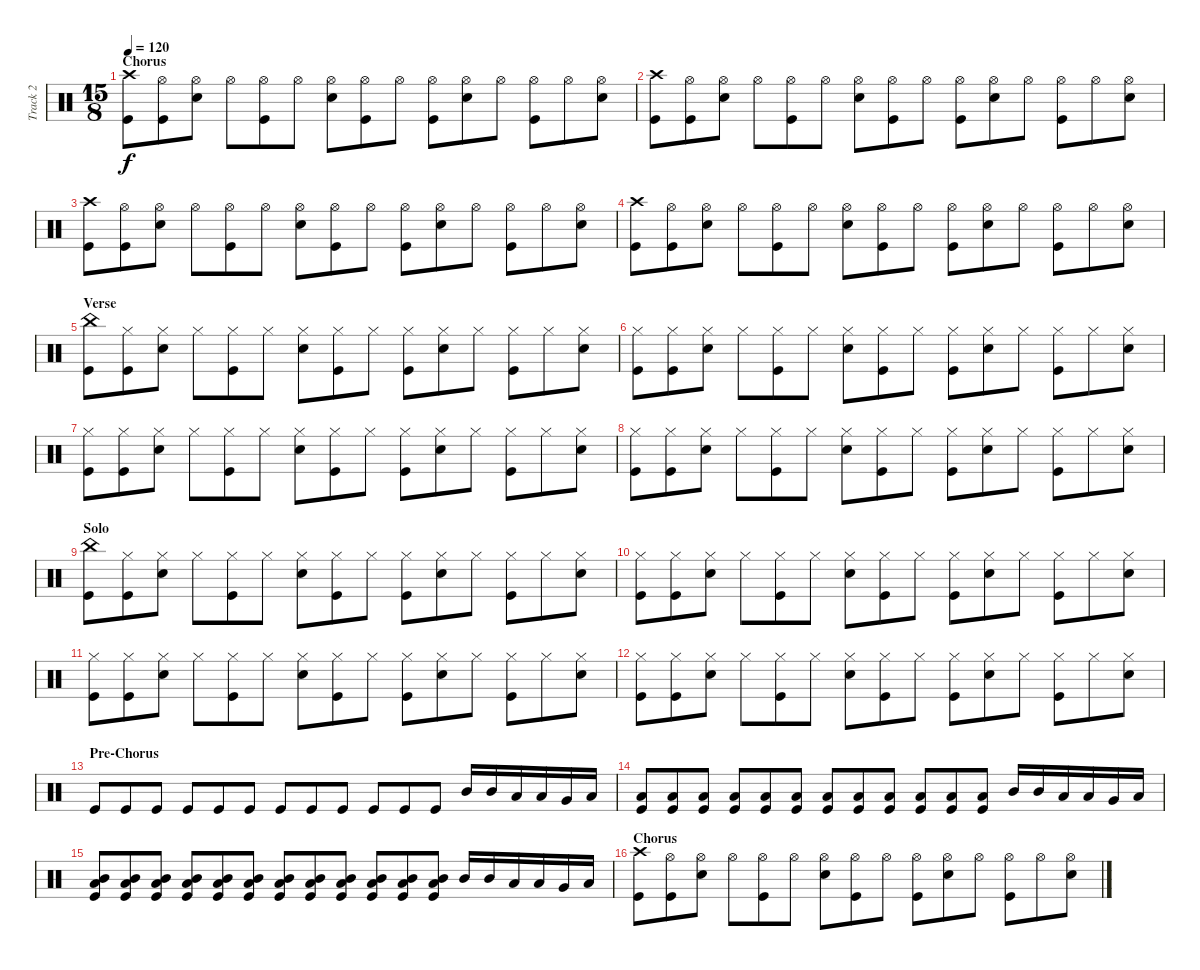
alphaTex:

\track ("Track 2" "Track 2") {instrument percussion}
\staff {score}
\articulation defaults
\ts (15 8)
\section ("" "Chorus")
\tempo 120
\clef neutral
\ks c
("Crash high (hit)" "Kick (hit)").8{dy f} ("Hi-Hat (open)" "Kick (hit)").8 ("Hi-Hat (open)" "Snare (hit) 2").8 "Hi-Hat (open)".8 ("Hi-Hat (open)" "Kick (hit)").8 "Hi-Hat (open)".8 ("Hi-Hat (open)" "Snare (hit) 2").8 ("Hi-Hat (open)" "Kick (hit)").8 "Hi-Hat (open)".8 ("Hi-Hat (open)" "Kick (hit)").8 ("Hi-Hat (open)" "Snare (hit) 2").8 "Hi-Hat (open)".8 ("Hi-Hat (open)" "Kick (hit)").8 "Hi-Hat (open)".8 ("Hi-Hat (open)" "Snare (hit) 2").8 |
("Crash high (hit)" "Kick (hit)").8 ("Hi-Hat (open)" "Kick (hit)").8 ("Hi-Hat (open)" "Snare (hit) 2").8 "Hi-Hat (open)".8 ("Hi-Hat (open)" "Kick (hit)").8 "Hi-Hat (open)".8 ("Hi-Hat (open)" "Snare (hit) 2").8 ("Hi-Hat (open)" "Kick (hit)").8 "Hi-Hat (open)".8 ("Hi-Hat (open)" "Kick (hit)").8 ("Hi-Hat (open)" "Snare (hit) 2").8 "Hi-Hat (open)".8 ("Hi-Hat (open)" "Kick (hit)").8 "Hi-Hat (open)".8 ("Hi-Hat (open)" "Snare (hit) 2").8 |
("Crash high (hit)" "Kick (hit)").8 ("Hi-Hat (open)" "Kick (hit)").8 ("Hi-Hat (open)" "Snare (hit) 2").8 "Hi-Hat (open)".8 ("Hi-Hat (open)" "Kick (hit)").8 "Hi-Hat (open)".8 ("Hi-Hat (open)" "Snare (hit) 2").8 ("Hi-Hat (open)" "Kick (hit)").8 "Hi-Hat (open)".8 ("Hi-Hat (open)" "Kick (hit)").8 ("Hi-Hat (open)" "Snare (hit) 2").8 "Hi-Hat (open)".8 ("Hi-Hat (open)" "Kick (hit)").8 "Hi-Hat (open)".8 ("Hi-Hat (open)" "Snare (hit) 2").8 |
("Crash high (hit)" "Kick (hit)").8 ("Hi-Hat (open)" "Kick (hit)").8 ("Hi-Hat (open)" "Snare (hit) 2").8 "Hi-Hat (open)".8 ("Hi-Hat (open)" "Kick (hit)").8 "Hi-Hat (open)".8 ("Hi-Hat (open)" "Snare (hit) 2").8 ("Hi-Hat (open)" "Kick (hit)").8 "Hi-Hat (open)".8 ("Hi-Hat (open)" "Kick (hit)").8 ("Hi-Hat (open)" "Snare (hit) 2").8 "Hi-Hat (open)".8 ("Hi-Hat (open)" "Kick (hit)").8 "Hi-Hat (open)".8 ("Hi-Hat (open)" "Snare (hit) 2").8 |
\section ("" "Verse")
("China (hit)" "Kick (hit)").8 ("Hi-Hat (closed)" "Kick (hit)").8 ("Hi-Hat (closed)" "Snare (hit) 2").8 "Hi-Hat (closed)".8 ("Hi-Hat (closed)" "Kick (hit)").8 "Hi-Hat (closed)".8 ("Hi-Hat (closed)" "Snare (hit) 2").8 ("Hi-Hat (closed)" "Kick (hit)").8 "Hi-Hat (closed)".8 ("Hi-Hat (closed)" "Kick (hit)").8 ("Hi-Hat (closed)" "Snare (hit) 2").8 "Hi-Hat (closed)".8 ("Hi-Hat (closed)" "Kick (hit)").8 "Hi-Hat (closed)".8 ("Hi-Hat (closed)" "Snare (hit) 2").8 |
("Hi-Hat (closed)" "Kick (hit)").8 ("Hi-Hat (closed)" "Kick (hit)").8 ("Hi-Hat (closed)" "Snare (hit) 2").8 "Hi-Hat (closed)".8 ("Hi-Hat (closed)" "Kick (hit)").8 "Hi-Hat (closed)".8 ("Hi-Hat (closed)" "Snare (hit) 2").8 ("Hi-Hat (closed)" "Kick (hit)").8 "Hi-Hat (closed)".8 ("Hi-Hat (closed)" "Kick (hit)").8 ("Hi-Hat (closed)" "Snare (hit) 2").8 "Hi-Hat (closed)".8 ("Hi-Hat (closed)" "Kick (hit)").8 "Hi-Hat (closed)".8 ("Hi-Hat (closed)" "Snare (hit) 2").8 |
("Hi-Hat (closed)" "Kick (hit)").8 ("Hi-Hat (closed)" "Kick (hit)").8 ("Hi-Hat (closed)" "Snare (hit) 2").8 "Hi-Hat (closed)".8 ("Hi-Hat (closed)" "Kick (hit)").8 "Hi-Hat (closed)".8 ("Hi-Hat (closed)" "Snare (hit) 2").8 ("Hi-Hat (closed)" "Kick (hit)").8 "Hi-Hat (closed)".8 ("Hi-Hat (closed)" "Kick (hit)").8 ("Hi-Hat (closed)" "Snare (hit) 2").8 "Hi-Hat (closed)".8 ("Hi-Hat (closed)" "Kick (hit)").8 "Hi-Hat (closed)".8 ("Hi-Hat (closed)" "Snare (hit) 2").8 |
("Hi-Hat (closed)" "Kick (hit)").8 ("Hi-Hat (closed)" "Kick (hit)").8 ("Hi-Hat (closed)" "Snare (hit) 2").8 "Hi-Hat (closed)".8 ("Hi-Hat (closed)" "Kick (hit)").8 "Hi-Hat (closed)".8 ("Hi-Hat (closed)" "Snare (hit) 2").8 ("Hi-Hat (closed)" "Kick (hit)").8 "Hi-Hat (closed)".8 ("Hi-Hat (closed)" "Kick (hit)").8 ("Hi-Hat (closed)" "Snare (hit) 2").8 "Hi-Hat (closed)".8 ("Hi-Hat (closed)" "Kick (hit)").8 "Hi-Hat (closed)".8 ("Hi-Hat (closed)" "Snare (hit) 2").8 |
\section ("" "Solo")
("China (hit)" "Kick (hit)").8 ("Hi-Hat (closed)" "Kick (hit)").8 ("Hi-Hat (closed)" "Snare (hit) 2").8 "Hi-Hat (closed)".8 ("Hi-Hat (closed)" "Kick (hit)").8 "Hi-Hat (closed)".8 ("Hi-Hat (closed)" "Snare (hit) 2").8 ("Hi-Hat (closed)" "Kick (hit)").8 "Hi-Hat (closed)".8 ("Hi-Hat (closed)" "Kick (hit)").8 ("Hi-Hat (closed)" "Snare (hit) 2").8 "Hi-Hat (closed)".8 ("Hi-Hat (closed)" "Kick (hit)").8 "Hi-Hat (closed)".8 ("Hi-Hat (closed)" "Snare (hit) 2").8 |
("Hi-Hat (closed)" "Kick (hit)").8 ("Hi-Hat (closed)" "Kick (hit)").8 ("Hi-Hat (closed)" "Snare (hit) 2").8 "Hi-Hat (closed)".8 ("Hi-Hat (closed)" "Kick (hit)").8 "Hi-Hat (closed)".8 ("Hi-Hat (closed)" "Snare (hit) 2").8 ("Hi-Hat (closed)" "Kick (hit)").8 "Hi-Hat (closed)".8 ("Hi-Hat (closed)" "Kick (hit)").8 ("Hi-Hat (closed)" "Snare (hit) 2").8 "Hi-Hat (closed)".8 ("Hi-Hat (closed)" "Kick (hit)").8 "Hi-Hat (closed)".8 ("Hi-Hat (closed)" "Snare (hit) 2").8 |
("Hi-Hat (closed)" "Kick (hit)").8 ("Hi-Hat (closed)" "Kick (hit)").8 ("Hi-Hat (closed)" "Snare (hit) 2").8 "Hi-Hat (closed)".8 ("Hi-Hat (closed)" "Kick (hit)").8 "Hi-Hat (closed)".8 ("Hi-Hat (closed)" "Snare (hit) 2").8 ("Hi-Hat (closed)" "Kick (hit)").8 "Hi-Hat (closed)".8 ("Hi-Hat (closed)" "Kick (hit)").8 ("Hi-Hat (closed)" "Snare (hit) 2").8 "Hi-Hat (closed)".8 ("Hi-Hat (closed)" "Kick (hit)").8 "Hi-Hat (closed)".8 ("Hi-Hat (closed)" "Snare (hit) 2").8 |
("Hi-Hat (closed)" "Kick (hit)").8 ("Hi-Hat (closed)" "Kick (hit)").8 ("Hi-Hat (closed)" "Snare (hit) 2").8 "Hi-Hat (closed)".8 ("Hi-Hat (closed)" "Kick (hit)").8 "Hi-Hat (closed)".8 ("Hi-Hat (closed)" "Snare (hit) 2").8 ("Hi-Hat (closed)" "Kick (hit)").8 "Hi-Hat (closed)".8 ("Hi-Hat (closed)" "Kick (hit)").8 ("Hi-Hat (closed)" "Snare (hit) 2").8 "Hi-Hat (closed)".8 ("Hi-Hat (closed)" "Kick (hit)").8 "Hi-Hat (closed)".8 ("Hi-Hat (closed)" "Snare (hit) 2").8 |
\section ("" "Pre-Chorus")
"Kick (hit)".8 "Kick (hit)".8 "Kick (hit)".8 "Kick (hit)".8 "Kick (hit)".8 "Kick (hit)".8 "Kick (hit)".8 "Kick (hit)".8 "Kick (hit)".8 "Kick (hit)".8 "Kick (hit)".8 "Kick (hit)".8 "Mid Tom (hit)".16 "Mid Tom (hit)".16 "Low Tom (hit)".16 "Low Tom (hit)".16 "Very Low Tom (hit)".16 "Low Floor Tom (hit)".16 |
("Low Floor Tom (hit)" "Kick (hit)").8 ("Low Floor Tom (hit)" "Kick (hit)").8 ("Low Floor Tom (hit)" "Kick (hit)").8 ("Low Floor Tom (hit)" "Kick (hit)").8 ("Low Floor Tom (hit)" "Kick (hit)").8 ("Low Floor Tom (hit)" "Kick (hit)").8 ("Low Floor Tom (hit)" "Kick (hit)").8 ("Low Floor Tom (hit)" "Kick (hit)").8 ("Low Floor Tom (hit)" "Kick (hit)").8 ("Low Floor Tom (hit)" "Kick (hit)").8 ("Low Floor Tom (hit)" "Kick (hit)").8 ("Low Floor Tom (hit)" "Kick (hit)").8 "Mid Tom (hit)".16 "Mid Tom (hit)".16 "Low Tom (hit)".16 "Low Tom (hit)".16 "Very Low Tom (hit)".16 "Low Floor Tom (hit)".16 |
("Mid Tom (hit)" "Low Floor Tom (hit)" "Kick (hit)").8 ("Mid Tom (hit)" "Low Floor Tom (hit)" "Kick (hit)").8 ("Mid Tom (hit)" "Low Floor Tom (hit)" "Kick (hit)").8 ("Mid Tom (hit)" "Low Floor Tom (hit)" "Kick (hit)").8 ("Mid Tom (hit)" "Low Floor Tom (hit)" "Kick (hit)").8 ("Mid Tom (hit)" "Low Floor Tom (hit)" "Kick (hit)").8 ("Mid Tom (hit)" "Low Floor Tom (hit)" "Kick (hit)").8 ("Mid Tom (hit)" "Low Floor Tom (hit)" "Kick (hit)").8 ("Mid Tom (hit)" "Low Floor Tom (hit)" "Kick (hit)").8 ("Mid Tom (hit)" "Low Floor Tom (hit)" "Kick (hit)").8 ("Mid Tom (hit)" "Low Floor Tom (hit)" "Kick (hit)").8 ("Mid Tom (hit)" "Low Floor Tom (hit)" "Kick (hit)").8 "Mid Tom (hit)".16 "Mid Tom (hit)".16 "Low Tom (hit)".16 "Low Tom (hit)".16 "Very Low Tom (hit)".16 "Low Floor Tom (hit)".16 |
\section ("" "Chorus")
("Crash high (hit)" "Kick (hit)").8 ("Hi-Hat (open)" "Kick (hit)").8 ("Hi-Hat (open)" "Snare (hit) 2").8 "Hi-Hat (open)".8 ("Hi-Hat (open)" "Kick (hit)").8 "Hi-Hat (open)".8 ("Hi-Hat (open)" "Snare (hit) 2").8 ("Hi-Hat (open)" "Kick (hit)").8 "Hi-Hat (open)".8 ("Hi-Hat (open)" "Kick (hit)").8 ("Hi-Hat (open)" "Snare (hit) 2").8 "Hi-Hat (open)".8 ("Hi-Hat (open)" "Kick (hit)").8 "Hi-Hat (open)".8 ("Hi-Hat (open)" "Snare (hit) 2").8
